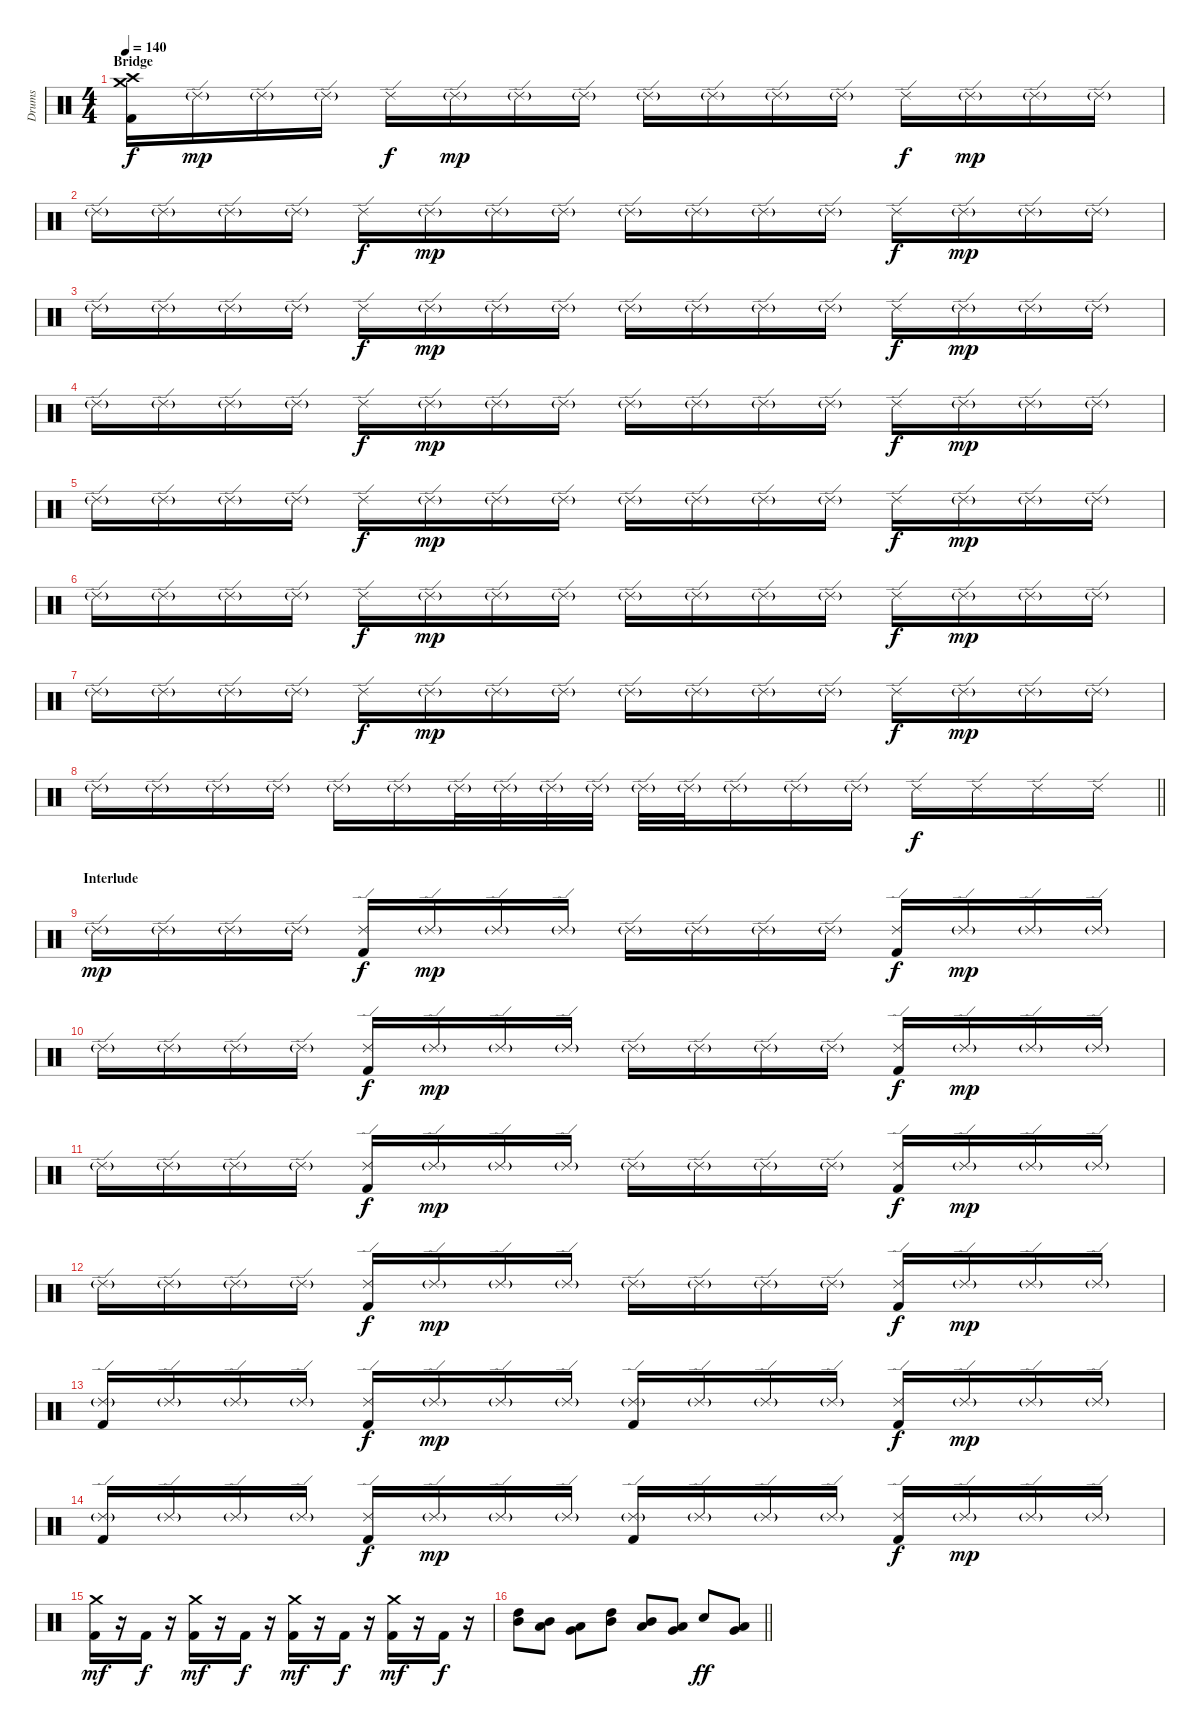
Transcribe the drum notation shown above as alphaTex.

\track ("Drums" "Drums") {instrument percussion}
\staff {score}
\articulation defaults
\ts (4 4)
\section ("" "Bridge")
\tempo 140
\clef neutral
\ks c
("Crash high (hit)" "Crash medium (hit)" "Kick (hit) 2").16{dy f} "Ride (edge) 2"{g}.16{dy mp} "Ride (edge) 2"{g}.16 "Ride (edge) 2"{g}.16 "Ride (edge) 2".16{dy f} "Ride (edge) 2"{g}.16{dy mp} "Ride (edge) 2"{g}.16 "Ride (edge) 2"{g}.16 "Ride (edge) 2"{g}.16 "Ride (edge) 2"{g}.16 "Ride (edge) 2"{g}.16 "Ride (edge) 2"{g}.16 "Ride (edge) 2".16{dy f} "Ride (edge) 2"{g}.16{dy mp} "Ride (edge) 2"{g}.16 "Ride (edge) 2"{g}.16 |
"Ride (edge) 2"{g}.16 "Ride (edge) 2"{g}.16 "Ride (edge) 2"{g}.16 "Ride (edge) 2"{g}.16 "Ride (edge) 2".16{dy f} "Ride (edge) 2"{g}.16{dy mp} "Ride (edge) 2"{g}.16 "Ride (edge) 2"{g}.16 "Ride (edge) 2"{g}.16 "Ride (edge) 2"{g}.16 "Ride (edge) 2"{g}.16 "Ride (edge) 2"{g}.16 "Ride (edge) 2".16{dy f} "Ride (edge) 2"{g}.16{dy mp} "Ride (edge) 2"{g}.16 "Ride (edge) 2"{g}.16 |
"Ride (edge) 2"{g}.16 "Ride (edge) 2"{g}.16 "Ride (edge) 2"{g}.16 "Ride (edge) 2"{g}.16 "Ride (edge) 2".16{dy f} "Ride (edge) 2"{g}.16{dy mp} "Ride (edge) 2"{g}.16 "Ride (edge) 2"{g}.16 "Ride (edge) 2"{g}.16 "Ride (edge) 2"{g}.16 "Ride (edge) 2"{g}.16 "Ride (edge) 2"{g}.16 "Ride (edge) 2".16{dy f} "Ride (edge) 2"{g}.16{dy mp} "Ride (edge) 2"{g}.16 "Ride (edge) 2"{g}.16 |
"Ride (edge) 2"{g}.16 "Ride (edge) 2"{g}.16 "Ride (edge) 2"{g}.16 "Ride (edge) 2"{g}.16 "Ride (edge) 2".16{dy f} "Ride (edge) 2"{g}.16{dy mp} "Ride (edge) 2"{g}.16 "Ride (edge) 2"{g}.16 "Ride (edge) 2"{g}.16 "Ride (edge) 2"{g}.16 "Ride (edge) 2"{g}.16 "Ride (edge) 2"{g}.16 "Ride (edge) 2".16{dy f} "Ride (edge) 2"{g}.16{dy mp} "Ride (edge) 2"{g}.16 "Ride (edge) 2"{g}.16 |
"Ride (edge) 2"{g}.16 "Ride (edge) 2"{g}.16 "Ride (edge) 2"{g}.16 "Ride (edge) 2"{g}.16 "Ride (edge) 2".16{dy f} "Ride (edge) 2"{g}.16{dy mp} "Ride (edge) 2"{g}.16 "Ride (edge) 2"{g}.16 "Ride (edge) 2"{g}.16 "Ride (edge) 2"{g}.16 "Ride (edge) 2"{g}.16 "Ride (edge) 2"{g}.16 "Ride (edge) 2".16{dy f} "Ride (edge) 2"{g}.16{dy mp} "Ride (edge) 2"{g}.16 "Ride (edge) 2"{g}.16 |
"Ride (edge) 2"{g}.16 "Ride (edge) 2"{g}.16 "Ride (edge) 2"{g}.16 "Ride (edge) 2"{g}.16 "Ride (edge) 2".16{dy f} "Ride (edge) 2"{g}.16{dy mp} "Ride (edge) 2"{g}.16 "Ride (edge) 2"{g}.16 "Ride (edge) 2"{g}.16 "Ride (edge) 2"{g}.16 "Ride (edge) 2"{g}.16 "Ride (edge) 2"{g}.16 "Ride (edge) 2".16{dy f} "Ride (edge) 2"{g}.16{dy mp} "Ride (edge) 2"{g}.16 "Ride (edge) 2"{g}.16 |
"Ride (edge) 2"{g}.16 "Ride (edge) 2"{g}.16 "Ride (edge) 2"{g}.16 "Ride (edge) 2"{g}.16 "Ride (edge) 2".16{dy f} "Ride (edge) 2"{g}.16{dy mp} "Ride (edge) 2"{g}.16 "Ride (edge) 2"{g}.16 "Ride (edge) 2"{g}.16 "Ride (edge) 2"{g}.16 "Ride (edge) 2"{g}.16 "Ride (edge) 2"{g}.16 "Ride (edge) 2".16{dy f} "Ride (edge) 2"{g}.16{dy mp} "Ride (edge) 2"{g}.16 "Ride (edge) 2"{g}.16 |
\barLineRight lightlight "Ride (edge) 2"{g}.16 "Ride (edge) 2"{g}.16 "Ride (edge) 2"{g}.16 "Ride (edge) 2"{g}.16 "Ride (edge) 2"{g}.16 "Ride (edge) 2"{g}.16 "Ride (edge) 2"{g}.32 "Ride (edge) 2"{g}.32 "Ride (edge) 2"{g}.32 "Ride (edge) 2"{g}.32 "Ride (edge) 2"{g}.32 "Ride (edge) 2"{g}.32 "Ride (edge) 2"{g}.16 "Ride (edge) 2"{g}.16 "Ride (edge) 2"{g}.16 "Ride (edge) 2".16{dy f} "Ride (edge) 2".16 "Ride (edge) 2".16 "Ride (edge) 2".16
|
\section ("" "Interlude")
"Ride (edge) 2"{g}.16{dy mp} "Ride (edge) 2"{g}.16 "Ride (edge) 2"{g}.16 "Ride (edge) 2"{g}.16 ("Ride (edge) 2" "Kick (hit) 2").16{dy f} "Ride (edge) 2"{g}.16{dy mp} "Ride (edge) 2"{g}.16 "Ride (edge) 2"{g}.16 "Ride (edge) 2"{g}.16 "Ride (edge) 2"{g}.16 "Ride (edge) 2"{g}.16 "Ride (edge) 2"{g}.16 ("Ride (edge) 2" "Kick (hit) 2").16{dy f} "Ride (edge) 2"{g}.16{dy mp} "Ride (edge) 2"{g}.16 "Ride (edge) 2"{g}.16 |
"Ride (edge) 2"{g}.16 "Ride (edge) 2"{g}.16 "Ride (edge) 2"{g}.16 "Ride (edge) 2"{g}.16 ("Ride (edge) 2" "Kick (hit) 2").16{dy f} "Ride (edge) 2"{g}.16{dy mp} "Ride (edge) 2"{g}.16 "Ride (edge) 2"{g}.16 "Ride (edge) 2"{g}.16 "Ride (edge) 2"{g}.16 "Ride (edge) 2"{g}.16 "Ride (edge) 2"{g}.16 ("Ride (edge) 2" "Kick (hit) 2").16{dy f} "Ride (edge) 2"{g}.16{dy mp} "Ride (edge) 2"{g}.16 "Ride (edge) 2"{g}.16 |
"Ride (edge) 2"{g}.16 "Ride (edge) 2"{g}.16 "Ride (edge) 2"{g}.16 "Ride (edge) 2"{g}.16 ("Ride (edge) 2" "Kick (hit) 2").16{dy f} "Ride (edge) 2"{g}.16{dy mp} "Ride (edge) 2"{g}.16 "Ride (edge) 2"{g}.16 "Ride (edge) 2"{g}.16 "Ride (edge) 2"{g}.16 "Ride (edge) 2"{g}.16 "Ride (edge) 2"{g}.16 ("Ride (edge) 2" "Kick (hit) 2").16{dy f} "Ride (edge) 2"{g}.16{dy mp} "Ride (edge) 2"{g}.16 "Ride (edge) 2"{g}.16 |
"Ride (edge) 2"{g}.16 "Ride (edge) 2"{g}.16 "Ride (edge) 2"{g}.16 "Ride (edge) 2"{g}.16 ("Ride (edge) 2" "Kick (hit) 2").16{dy f} "Ride (edge) 2"{g}.16{dy mp} "Ride (edge) 2"{g}.16 "Ride (edge) 2"{g}.16 "Ride (edge) 2"{g}.16 "Ride (edge) 2"{g}.16 "Ride (edge) 2"{g}.16 "Ride (edge) 2"{g}.16 ("Ride (edge) 2" "Kick (hit) 2").16{dy f} "Ride (edge) 2"{g}.16{dy mp} "Ride (edge) 2"{g}.16 "Ride (edge) 2"{g}.16 |
("Ride (edge) 2"{g} "Kick (hit) 2").16 "Ride (edge) 2"{g}.16 "Ride (edge) 2"{g}.16 "Ride (edge) 2"{g}.16 ("Ride (edge) 2" "Kick (hit) 2").16{dy f} "Ride (edge) 2"{g}.16{dy mp} "Ride (edge) 2"{g}.16 "Ride (edge) 2"{g}.16 ("Ride (edge) 2"{g} "Kick (hit) 2").16 "Ride (edge) 2"{g}.16 "Ride (edge) 2"{g}.16 "Ride (edge) 2"{g}.16 ("Ride (edge) 2" "Kick (hit) 2").16{dy f} "Ride (edge) 2"{g}.16{dy mp} "Ride (edge) 2"{g}.16 "Ride (edge) 2"{g}.16 |
("Ride (edge) 2"{g} "Kick (hit) 2").16 "Ride (edge) 2"{g}.16 "Ride (edge) 2"{g}.16 "Ride (edge) 2"{g}.16 ("Ride (edge) 2" "Kick (hit) 2").16{dy f} "Ride (edge) 2"{g}.16{dy mp} "Ride (edge) 2"{g}.16 "Ride (edge) 2"{g}.16 ("Ride (edge) 2"{g} "Kick (hit) 2").16 "Ride (edge) 2"{g}.16 "Ride (edge) 2"{g}.16 "Ride (edge) 2"{g}.16 ("Ride (edge) 2" "Kick (hit) 2").16{dy f} "Ride (edge) 2"{g}.16{dy mp} "Ride (edge) 2"{g}.16 "Ride (edge) 2"{g}.16 |
("Crash medium (hit)" "Kick (hit) 2").16{dy mf} r.16 "Kick (hit) 2".16{dy f} r.16 ("Crash medium (hit)" "Kick (hit) 2").16{dy mf} r.16 "Kick (hit) 2".16{dy f} r.16 ("Crash medium (hit)" "Kick (hit) 2").16{dy mf} r.16 "Kick (hit) 2".16{dy f} r.16 ("Crash medium (hit)" "Kick (hit) 2").16{dy mf} r.16 "Kick (hit) 2".16{dy f} r.16 |
\barLineRight lightlight
("High Tom (hit)" "Mid Tom (hit)").8 ("Mid Tom (hit)" "Low Tom (hit)").8 ("Low Tom (hit)" "Very Low Tom (hit)").8 ("High Tom (hit)" "Mid Tom (hit)").8 ("Mid Tom (hit)" "Low Tom (hit)").8 ("Low Tom (hit)" "Very Low Tom (hit)").8 "Electric Snare (hit)".8{dy ff} ("Very Low Tom (hit)" "Low Floor Tom (hit)").8
